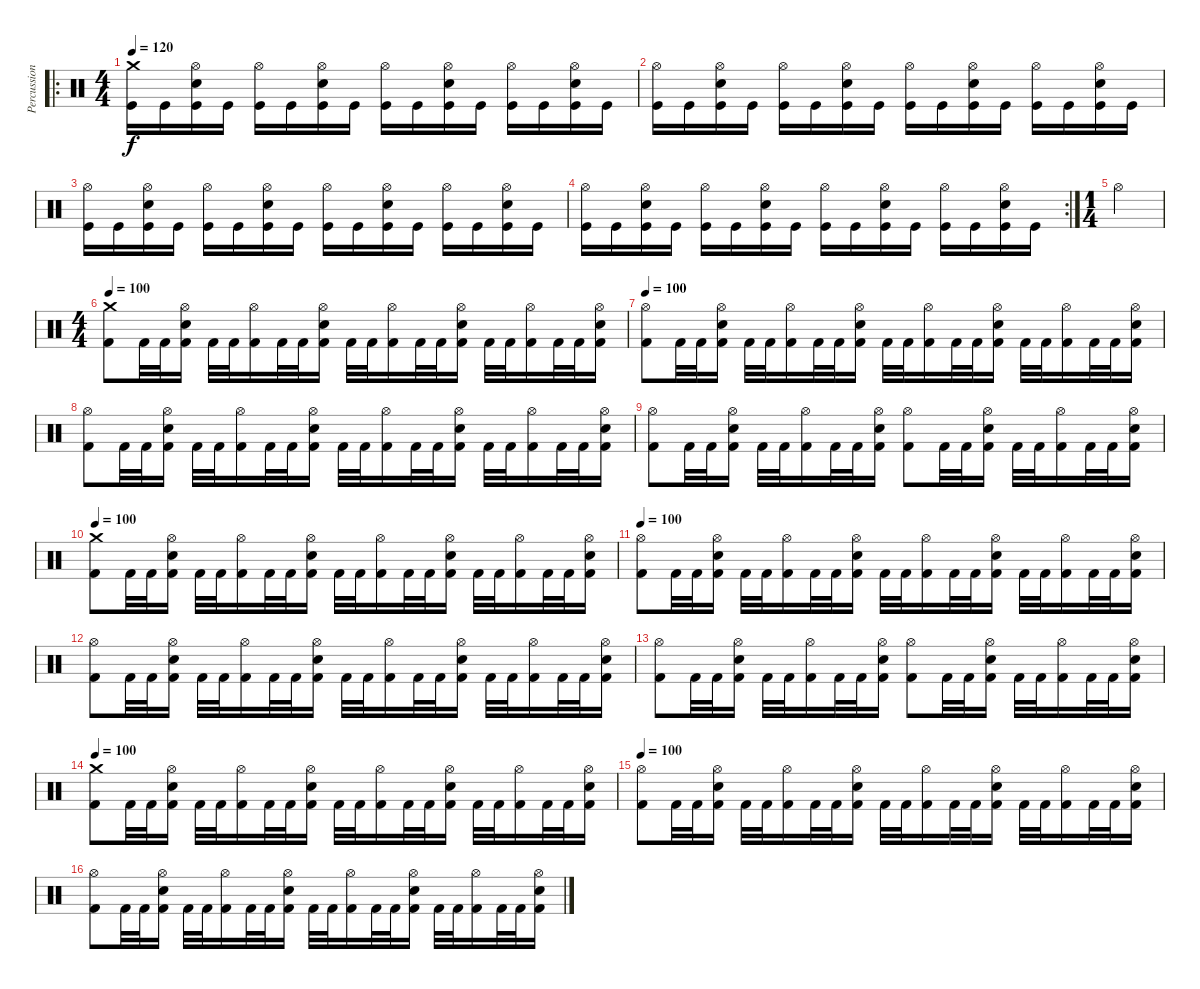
\track ("Percussions" "Percussion") {instrument percussion}
\staff {score}
\articulation defaults
\ro
\ts (4 4)
\tempo 120
\clef neutral
\ks c
("Kick (hit)" "Crash medium (hit)").16{dy f} "Kick (hit)".16 ("Kick (hit)" "Electric Snare (hit)" "Hi-Hat (open)").16 "Kick (hit)".16 ("Kick (hit)" "Hi-Hat (open)").16 "Kick (hit)".16 ("Kick (hit)" "Electric Snare (hit)" "Hi-Hat (open)").16 "Kick (hit)".16 ("Kick (hit)" "Hi-Hat (open)").16 "Kick (hit)".16 ("Kick (hit)" "Electric Snare (hit)" "Hi-Hat (open)").16 "Kick (hit)".16 ("Kick (hit)" "Hi-Hat (open)").16 "Kick (hit)".16 ("Kick (hit)" "Electric Snare (hit)" "Hi-Hat (open)").16 "Kick (hit)".16 |
("Kick (hit)" "Hi-Hat (open)").16 "Kick (hit)".16 ("Kick (hit)" "Electric Snare (hit)" "Hi-Hat (open)").16 "Kick (hit)".16 ("Kick (hit)" "Hi-Hat (open)").16 "Kick (hit)".16 ("Kick (hit)" "Electric Snare (hit)" "Hi-Hat (open)").16 "Kick (hit)".16 ("Kick (hit)" "Hi-Hat (open)").16 "Kick (hit)".16 ("Kick (hit)" "Electric Snare (hit)" "Hi-Hat (open)").16 "Kick (hit)".16 ("Kick (hit)" "Hi-Hat (open)").16 "Kick (hit)".16 ("Kick (hit)" "Electric Snare (hit)" "Hi-Hat (open)").16 "Kick (hit)".16 |
("Kick (hit)" "Hi-Hat (open)").16 "Kick (hit)".16 ("Kick (hit)" "Electric Snare (hit)" "Hi-Hat (open)").16 "Kick (hit)".16 ("Kick (hit)" "Hi-Hat (open)").16 "Kick (hit)".16 ("Kick (hit)" "Electric Snare (hit)" "Hi-Hat (open)").16 "Kick (hit)".16 ("Kick (hit)" "Hi-Hat (open)").16 "Kick (hit)".16 ("Kick (hit)" "Electric Snare (hit)" "Hi-Hat (open)").16 "Kick (hit)".16 ("Kick (hit)" "Hi-Hat (open)").16 "Kick (hit)".16 ("Kick (hit)" "Electric Snare (hit)" "Hi-Hat (open)").16 "Kick (hit)".16 |
\rc 2
("Kick (hit)" "Hi-Hat (open)").16 "Kick (hit)".16 ("Kick (hit)" "Electric Snare (hit)" "Hi-Hat (open)").16 "Kick (hit)".16 ("Kick (hit)" "Hi-Hat (open)").16 "Kick (hit)".16 ("Kick (hit)" "Electric Snare (hit)" "Hi-Hat (open)").16 "Kick (hit)".16 ("Kick (hit)" "Hi-Hat (open)").16 "Kick (hit)".16 ("Kick (hit)" "Electric Snare (hit)" "Hi-Hat (open)").16 "Kick (hit)".16 ("Kick (hit)" "Hi-Hat (open)").16 "Kick (hit)".16 ("Kick (hit)" "Electric Snare (hit)" "Hi-Hat (open)").16 "Kick (hit)".16 |
\ts (1 4)
"Hi-Hat (open)".4 |
\ts (4 4)
\tempo 100
("Kick (hit) 2" "Crash medium (hit)").8 "Kick (hit) 2".32 "Kick (hit) 2".32 ("Kick (hit) 2" "Electric Snare (hit)" "Hi-Hat (open)").16 "Kick (hit) 2".32 "Kick (hit) 2".32 ("Kick (hit) 2" "Hi-Hat (open)").16 "Kick (hit) 2".32 "Kick (hit) 2".32 ("Kick (hit) 2" "Electric Snare (hit)" "Hi-Hat (open)").16 "Kick (hit) 2".32 "Kick (hit) 2".32 ("Kick (hit) 2" "Hi-Hat (open)").16 "Kick (hit) 2".32 "Kick (hit) 2".32 ("Kick (hit) 2" "Electric Snare (hit)" "Hi-Hat (open)").16 "Kick (hit) 2".32 "Kick (hit) 2".32 ("Kick (hit) 2" "Hi-Hat (open)").16 "Kick (hit) 2".32 "Kick (hit) 2".32 ("Kick (hit) 2" "Electric Snare (hit)" "Hi-Hat (open)").16 |
\tempo 100
("Kick (hit) 2" "Hi-Hat (open)").8 "Kick (hit) 2".32 "Kick (hit) 2".32 ("Kick (hit) 2" "Electric Snare (hit)" "Hi-Hat (open)").16 "Kick (hit) 2".32 "Kick (hit) 2".32 ("Kick (hit) 2" "Hi-Hat (open)").16 "Kick (hit) 2".32 "Kick (hit) 2".32 ("Kick (hit) 2" "Electric Snare (hit)" "Hi-Hat (open)").16 "Kick (hit) 2".32 "Kick (hit) 2".32 ("Kick (hit) 2" "Hi-Hat (open)").16 "Kick (hit) 2".32 "Kick (hit) 2".32 ("Kick (hit) 2" "Electric Snare (hit)" "Hi-Hat (open)").16 "Kick (hit) 2".32 "Kick (hit) 2".32 ("Kick (hit) 2" "Hi-Hat (open)").16 "Kick (hit) 2".32 "Kick (hit) 2".32 ("Kick (hit) 2" "Electric Snare (hit)" "Hi-Hat (open)").16 |
("Kick (hit) 2" "Hi-Hat (open)").8 "Kick (hit) 2".32 "Kick (hit) 2".32 ("Kick (hit) 2" "Electric Snare (hit)" "Hi-Hat (open)").16 "Kick (hit) 2".32 "Kick (hit) 2".32 ("Kick (hit) 2" "Hi-Hat (open)").16 "Kick (hit) 2".32 "Kick (hit) 2".32 ("Kick (hit) 2" "Electric Snare (hit)" "Hi-Hat (open)").16 "Kick (hit) 2".32 "Kick (hit) 2".32 ("Kick (hit) 2" "Hi-Hat (open)").16 "Kick (hit) 2".32 "Kick (hit) 2".32 ("Kick (hit) 2" "Electric Snare (hit)" "Hi-Hat (open)").16 "Kick (hit) 2".32 "Kick (hit) 2".32 ("Kick (hit) 2" "Hi-Hat (open)").16 "Kick (hit) 2".32 "Kick (hit) 2".32 ("Kick (hit) 2" "Electric Snare (hit)" "Hi-Hat (open)").16 |
("Kick (hit) 2" "Hi-Hat (open)").8 "Kick (hit) 2".32 "Kick (hit) 2".32 ("Kick (hit) 2" "Electric Snare (hit)" "Hi-Hat (open)").16 "Kick (hit) 2".32 "Kick (hit) 2".32 ("Kick (hit) 2" "Hi-Hat (open)").16 "Kick (hit) 2".32 "Kick (hit) 2".32 ("Kick (hit) 2" "Electric Snare (hit)" "Hi-Hat (open)").16 ("Kick (hit) 2" "Hi-Hat (open)").8 "Kick (hit) 2".32 "Kick (hit) 2".32 ("Kick (hit) 2" "Electric Snare (hit)" "Hi-Hat (open)").16 "Kick (hit) 2".32 "Kick (hit) 2".32 ("Kick (hit) 2" "Hi-Hat (open)").16 "Kick (hit) 2".32 "Kick (hit) 2".32 ("Kick (hit) 2" "Electric Snare (hit)" "Hi-Hat (open)").16 |
\tempo 100
("Kick (hit) 2" "Crash medium (hit)").8 "Kick (hit) 2".32 "Kick (hit) 2".32 ("Kick (hit) 2" "Electric Snare (hit)" "Hi-Hat (open)").16 "Kick (hit) 2".32 "Kick (hit) 2".32 ("Kick (hit) 2" "Hi-Hat (open)").16 "Kick (hit) 2".32 "Kick (hit) 2".32 ("Kick (hit) 2" "Electric Snare (hit)" "Hi-Hat (open)").16 "Kick (hit) 2".32 "Kick (hit) 2".32 ("Kick (hit) 2" "Hi-Hat (open)").16 "Kick (hit) 2".32 "Kick (hit) 2".32 ("Kick (hit) 2" "Electric Snare (hit)" "Hi-Hat (open)").16 "Kick (hit) 2".32 "Kick (hit) 2".32 ("Kick (hit) 2" "Hi-Hat (open)").16 "Kick (hit) 2".32 "Kick (hit) 2".32 ("Kick (hit) 2" "Electric Snare (hit)" "Hi-Hat (open)").16 |
\tempo 100
("Kick (hit) 2" "Hi-Hat (open)").8 "Kick (hit) 2".32 "Kick (hit) 2".32 ("Kick (hit) 2" "Electric Snare (hit)" "Hi-Hat (open)").16 "Kick (hit) 2".32 "Kick (hit) 2".32 ("Kick (hit) 2" "Hi-Hat (open)").16 "Kick (hit) 2".32 "Kick (hit) 2".32 ("Kick (hit) 2" "Electric Snare (hit)" "Hi-Hat (open)").16 "Kick (hit) 2".32 "Kick (hit) 2".32 ("Kick (hit) 2" "Hi-Hat (open)").16 "Kick (hit) 2".32 "Kick (hit) 2".32 ("Kick (hit) 2" "Electric Snare (hit)" "Hi-Hat (open)").16 "Kick (hit) 2".32 "Kick (hit) 2".32 ("Kick (hit) 2" "Hi-Hat (open)").16 "Kick (hit) 2".32 "Kick (hit) 2".32 ("Kick (hit) 2" "Electric Snare (hit)" "Hi-Hat (open)").16 |
("Kick (hit) 2" "Hi-Hat (open)").8 "Kick (hit) 2".32 "Kick (hit) 2".32 ("Kick (hit) 2" "Electric Snare (hit)" "Hi-Hat (open)").16 "Kick (hit) 2".32 "Kick (hit) 2".32 ("Kick (hit) 2" "Hi-Hat (open)").16 "Kick (hit) 2".32 "Kick (hit) 2".32 ("Kick (hit) 2" "Electric Snare (hit)" "Hi-Hat (open)").16 "Kick (hit) 2".32 "Kick (hit) 2".32 ("Kick (hit) 2" "Hi-Hat (open)").16 "Kick (hit) 2".32 "Kick (hit) 2".32 ("Kick (hit) 2" "Electric Snare (hit)" "Hi-Hat (open)").16 "Kick (hit) 2".32 "Kick (hit) 2".32 ("Kick (hit) 2" "Hi-Hat (open)").16 "Kick (hit) 2".32 "Kick (hit) 2".32 ("Kick (hit) 2" "Electric Snare (hit)" "Hi-Hat (open)").16 |
("Kick (hit) 2" "Hi-Hat (open)").8 "Kick (hit) 2".32 "Kick (hit) 2".32 ("Kick (hit) 2" "Electric Snare (hit)" "Hi-Hat (open)").16 "Kick (hit) 2".32 "Kick (hit) 2".32 ("Kick (hit) 2" "Hi-Hat (open)").16 "Kick (hit) 2".32 "Kick (hit) 2".32 ("Kick (hit) 2" "Electric Snare (hit)" "Hi-Hat (open)").16 ("Kick (hit) 2" "Hi-Hat (open)").8 "Kick (hit) 2".32 "Kick (hit) 2".32 ("Kick (hit) 2" "Electric Snare (hit)" "Hi-Hat (open)").16 "Kick (hit) 2".32 "Kick (hit) 2".32 ("Kick (hit) 2" "Hi-Hat (open)").16 "Kick (hit) 2".32 "Kick (hit) 2".32 ("Kick (hit) 2" "Electric Snare (hit)" "Hi-Hat (open)").16 |
\tempo 100
("Kick (hit) 2" "Crash medium (hit)").8 "Kick (hit) 2".32 "Kick (hit) 2".32 ("Kick (hit) 2" "Electric Snare (hit)" "Hi-Hat (open)").16 "Kick (hit) 2".32 "Kick (hit) 2".32 ("Kick (hit) 2" "Hi-Hat (open)").16 "Kick (hit) 2".32 "Kick (hit) 2".32 ("Kick (hit) 2" "Electric Snare (hit)" "Hi-Hat (open)").16 "Kick (hit) 2".32 "Kick (hit) 2".32 ("Kick (hit) 2" "Hi-Hat (open)").16 "Kick (hit) 2".32 "Kick (hit) 2".32 ("Kick (hit) 2" "Electric Snare (hit)" "Hi-Hat (open)").16 "Kick (hit) 2".32 "Kick (hit) 2".32 ("Kick (hit) 2" "Hi-Hat (open)").16 "Kick (hit) 2".32 "Kick (hit) 2".32 ("Kick (hit) 2" "Electric Snare (hit)" "Hi-Hat (open)").16 |
\tempo 100
("Kick (hit) 2" "Hi-Hat (open)").8 "Kick (hit) 2".32 "Kick (hit) 2".32 ("Kick (hit) 2" "Electric Snare (hit)" "Hi-Hat (open)").16 "Kick (hit) 2".32 "Kick (hit) 2".32 ("Kick (hit) 2" "Hi-Hat (open)").16 "Kick (hit) 2".32 "Kick (hit) 2".32 ("Kick (hit) 2" "Electric Snare (hit)" "Hi-Hat (open)").16 "Kick (hit) 2".32 "Kick (hit) 2".32 ("Kick (hit) 2" "Hi-Hat (open)").16 "Kick (hit) 2".32 "Kick (hit) 2".32 ("Kick (hit) 2" "Electric Snare (hit)" "Hi-Hat (open)").16 "Kick (hit) 2".32 "Kick (hit) 2".32 ("Kick (hit) 2" "Hi-Hat (open)").16 "Kick (hit) 2".32 "Kick (hit) 2".32 ("Kick (hit) 2" "Electric Snare (hit)" "Hi-Hat (open)").16 |
("Kick (hit) 2" "Hi-Hat (open)").8 "Kick (hit) 2".32 "Kick (hit) 2".32 ("Kick (hit) 2" "Electric Snare (hit)" "Hi-Hat (open)").16 "Kick (hit) 2".32 "Kick (hit) 2".32 ("Kick (hit) 2" "Hi-Hat (open)").16 "Kick (hit) 2".32 "Kick (hit) 2".32 ("Kick (hit) 2" "Electric Snare (hit)" "Hi-Hat (open)").16 "Kick (hit) 2".32 "Kick (hit) 2".32 ("Kick (hit) 2" "Hi-Hat (open)").16 "Kick (hit) 2".32 "Kick (hit) 2".32 ("Kick (hit) 2" "Electric Snare (hit)" "Hi-Hat (open)").16 "Kick (hit) 2".32 "Kick (hit) 2".32 ("Kick (hit) 2" "Hi-Hat (open)").16 "Kick (hit) 2".32 "Kick (hit) 2".32 ("Kick (hit) 2" "Electric Snare (hit)" "Hi-Hat (open)").16
